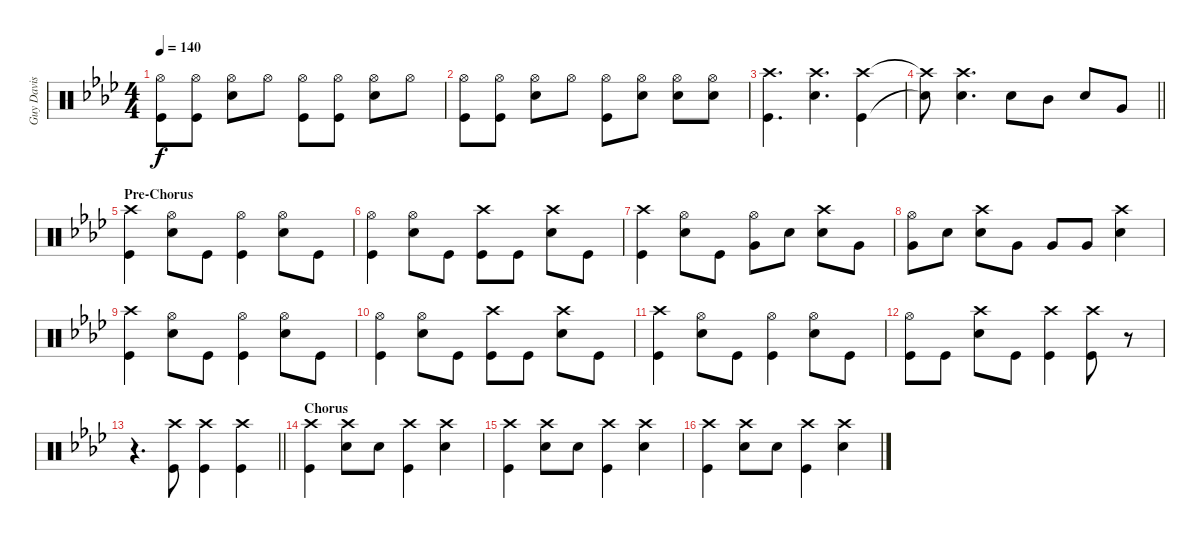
\track ("Guy Davis" "Guy Davis") {instrument percussion}
\staff {score}
\articulation defaults
\ts (4 4)
\tempo 140
\clef neutral
\ks fminor
("Hi-Hat (open)" "Kick (hit)").8{dy f} ("Hi-Hat (open)" "Kick (hit)").8 ("Hand Clap (hit)" "Hi-Hat (open)").8 "Hi-Hat (open)".8 ("Hi-Hat (open)" "Kick (hit)").8 ("Hi-Hat (open)" "Kick (hit)").8 ("Hand Clap (hit)" "Hi-Hat (open)").8 "Hi-Hat (open)".8 |
("Hi-Hat (open)" "Kick (hit)").8 ("Hi-Hat (open)" "Kick (hit)").8 ("Hand Clap (hit)" "Hi-Hat (open)").8 "Hi-Hat (open)".8 ("Hi-Hat (open)" "Kick (hit)").8 ("Hand Clap (hit)" "Hi-Hat (open)").8 ("Hand Clap (hit)" "Hi-Hat (open)").8 ("Hand Clap (hit)" "Hi-Hat (open)").8 |
("Crash high (hit)" "Kick (hit)").4{d} ("Crash high (hit)" "Snare (hit) 2").4{d} ("Crash high (hit)" "Kick (hit)").4 |
\barLineRight lightlight
("Crash high (hit)"{t} "Snare (hit) 2"{t}).8 ("Crash high (hit)" "Snare (hit) 2").4{d} "Snare (hit) 2".8 "Mid Tom (hit)".8 "Snare (hit) 2".8 "Very Low Tom (hit)".8 |
\section ("" "Pre-Chorus")
("Crash high (hit)" "Kick (hit)").4 ("Hi-Hat (open)" "Snare (hit) 2").8 "Kick (hit)".8 ("Hi-Hat (open)" "Kick (hit)").4 ("Hi-Hat (open)" "Snare (hit) 2").8 "Kick (hit)".8 |
("Hi-Hat (open)" "Kick (hit)").4 ("Hi-Hat (open)" "Snare (hit) 2").8 "Kick (hit)".8 ("Crash high (hit)" "Kick (hit)").8 "Kick (hit)".8 ("Crash high (hit)" "Snare (hit) 2").8 "Kick (hit)".8 |
("Crash high (hit)" "Kick (hit)").4 ("Hi-Hat (open)" "Snare (hit) 2").8 "Kick (hit)".8 ("Hi-Hat (open)" "Very Low Tom (hit)").8 "Snare (hit) 2".8 ("Crash high (hit)" "Snare (hit) 2").8 "Very Low Tom (hit)".8 |
("Hi-Hat (open)" "Very Low Tom (hit)").8 "Snare (hit) 2".8 ("Crash high (hit)" "Snare (hit) 2").8 "Very Low Tom (hit)".8 "Very Low Tom (hit)".8 "Very Low Tom (hit)".8 ("Crash high (hit)" "Snare (hit) 2").4 |
("Crash high (hit)" "Kick (hit)").4 ("Hi-Hat (open)" "Snare (hit) 2").8 "Kick (hit)".8 ("Hi-Hat (open)" "Kick (hit)").4 ("Hi-Hat (open)" "Snare (hit) 2").8 "Kick (hit)".8 |
("Hi-Hat (open)" "Kick (hit)").4 ("Hi-Hat (open)" "Snare (hit) 2").8 "Kick (hit)".8 ("Crash high (hit)" "Kick (hit)").8 "Kick (hit)".8 ("Crash high (hit)" "Snare (hit) 2").8 "Kick (hit)".8 |
("Crash high (hit)" "Kick (hit)").4 ("Hi-Hat (open)" "Snare (hit) 2").8 "Kick (hit)".8 ("Hi-Hat (open)" "Kick (hit)").4 ("Hi-Hat (open)" "Snare (hit) 2").8 "Kick (hit)".8 |
("Hi-Hat (open)" "Kick (hit)").8 "Kick (hit)".8 ("Crash high (hit)" "Snare (hit) 2").8 "Kick (hit)".8 ("Crash high (hit)" "Kick (hit)").4 ("Crash high (hit)" "Kick (hit)").8 r.8 |
\barLineRight lightlight
r.4{d} ("Crash high (hit)" "Kick (hit)").8 ("Crash high (hit)" "Kick (hit)").4 ("Crash high (hit)" "Kick (hit)").4 |
\section ("" "Chorus")
("Crash high (hit)" "Kick (hit)").4 ("Crash high (hit)" "Snare (hit) 2").8 "Snare (hit) 2".8 ("Crash high (hit)" "Kick (hit)").4 ("Crash high (hit)" "Snare (hit) 2").4 |
("Crash high (hit)" "Kick (hit)").4 ("Crash high (hit)" "Snare (hit) 2").8 "Snare (hit) 2".8 ("Crash high (hit)" "Kick (hit)").4 ("Crash high (hit)" "Snare (hit) 2").4 |
("Crash high (hit)" "Kick (hit)").4 ("Crash high (hit)" "Snare (hit) 2").8 "Snare (hit) 2".8 ("Crash high (hit)" "Kick (hit)").4 ("Crash high (hit)" "Snare (hit) 2").4
